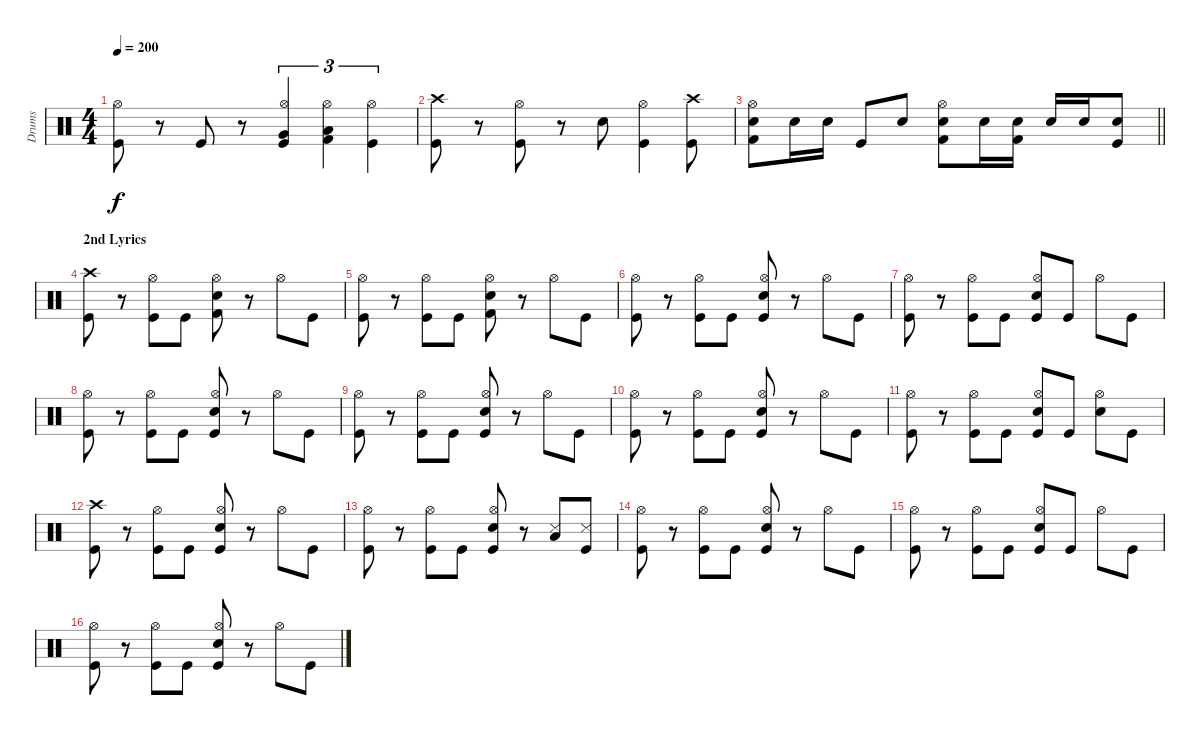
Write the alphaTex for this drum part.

\track ("Drums" "Drums") {instrument percussion}
\staff {score}
\articulation defaults
\ts (4 4)
\tempo 200
\clef neutral
\ks c
("Kick (hit)" "Hi-Hat (open)").8{dy f} r.8 "Kick (hit)".8 r.8 ("Kick (hit)" "Hi-Hat (open)" "Very Low Tom (hit)").4{tu (3 2)} ("Kick (hit) 2" "Hi-Hat (open)" "Low Floor Tom (hit)").4{tu (3 2)} ("Kick (hit)" "Hi-Hat (open)").4{tu (3 2)} |
("Kick (hit)" "Crash high (hit)").8 r.8 ("Kick (hit)" "Hi-Hat (open)").8 r.8 "Electric Snare (hit)".8 ("Kick (hit)" "Hi-Hat (open)").4 ("Kick (hit)" "Crash high (hit)").8 |
\barLineRight lightlight
("Kick (hit) 2" "Electric Snare (hit)" "Hi-Hat (open)").8 "Snare (hit) 2".16 "Electric Snare (hit)".16 "Kick (hit)".8 "Snare (hit) 2".8 ("Kick (hit) 2" "Electric Snare (hit)" "Hi-Hat (open)").8 "Snare (hit) 2".16 ("Kick (hit) 2" "Electric Snare (hit)").16 "Snare (hit) 2".16 "Electric Snare (hit)".16 ("Kick (hit)" "Electric Snare (hit)").8 |
\section ("" "2nd Lyrics")
("Kick (hit)" "Crash high (hit)").8 r.8 ("Kick (hit)" "Hi-Hat (open)").8 "Kick (hit)".8 ("Kick (hit) 2" "Electric Snare (hit)" "Hi-Hat (open)").8 r.8 "Hi-Hat (open)".8 "Kick (hit)".8 |
("Kick (hit)" "Hi-Hat (open)").8 r.8 ("Kick (hit)" "Hi-Hat (open)").8 "Kick (hit)".8 ("Kick (hit) 2" "Electric Snare (hit)" "Hi-Hat (open)").8 r.8 "Hi-Hat (open)".8 "Kick (hit)".8 |
("Kick (hit)" "Hi-Hat (open)").8 r.8 ("Kick (hit)" "Hi-Hat (open)").8 "Kick (hit)".8 ("Kick (hit)" "Electric Snare (hit)" "Hi-Hat (open)").8 r.8 "Hi-Hat (open)".8 "Kick (hit)".8 |
("Kick (hit)" "Hi-Hat (open)").8 r.8 ("Kick (hit)" "Hi-Hat (open)").8 "Kick (hit)".8 ("Kick (hit)" "Electric Snare (hit)" "Hi-Hat (open)").8 "Kick (hit)".8 "Hi-Hat (open)".8 "Kick (hit)".8 |
("Kick (hit)" "Hi-Hat (open)").8 r.8 ("Kick (hit)" "Hi-Hat (open)").8 "Kick (hit)".8 ("Kick (hit)" "Electric Snare (hit)" "Hi-Hat (open)").8 r.8 "Hi-Hat (open)".8 "Kick (hit)".8 |
("Kick (hit)" "Hi-Hat (open)").8 r.8 ("Kick (hit)" "Hi-Hat (open)").8 "Kick (hit)".8 ("Kick (hit)" "Electric Snare (hit)" "Hi-Hat (open)").8 r.8 "Hi-Hat (open)".8 "Kick (hit)".8 |
("Kick (hit)" "Hi-Hat (open)").8 r.8 ("Kick (hit)" "Hi-Hat (open)").8 "Kick (hit)".8 ("Kick (hit)" "Electric Snare (hit)" "Hi-Hat (open)").8 r.8 "Hi-Hat (open)".8 "Kick (hit)".8 |
("Kick (hit)" "Hi-Hat (open)").8 r.8 ("Kick (hit)" "Hi-Hat (open)").8 "Kick (hit)".8 ("Kick (hit)" "Electric Snare (hit)" "Hi-Hat (open)").8 "Kick (hit)".8 ("Electric Snare (hit)" "Hi-Hat (open)").8 "Kick (hit)".8 |
("Kick (hit)" "Crash high (hit)").8 r.8 ("Kick (hit)" "Hi-Hat (open)").8 "Kick (hit)".8 ("Kick (hit)" "Electric Snare (hit)" "Hi-Hat (open)").8 r.8 "Hi-Hat (open)".8 "Kick (hit)".8 |
("Kick (hit)" "Hi-Hat (open)").8 r.8 ("Kick (hit)" "Hi-Hat (open)").8 "Kick (hit)".8 ("Kick (hit)" "Electric Snare (hit)" "Hi-Hat (open)").8 r.8 ("Snare (side stick) 3" "Low Floor Tom (hit)").8 ("Kick (hit)" "Snare (side stick) 3").8 |
("Kick (hit)" "Hi-Hat (open)").8 r.8 ("Kick (hit)" "Hi-Hat (open)").8 "Kick (hit)".8 ("Kick (hit)" "Electric Snare (hit)" "Hi-Hat (open)").8 r.8 "Hi-Hat (open)".8 "Kick (hit)".8 |
("Kick (hit)" "Hi-Hat (open)").8 r.8 ("Kick (hit)" "Hi-Hat (open)").8 "Kick (hit)".8 ("Kick (hit)" "Electric Snare (hit)" "Hi-Hat (open)").8 "Kick (hit)".8 "Hi-Hat (open)".8 "Kick (hit)".8 |
("Kick (hit)" "Hi-Hat (open)").8 r.8 ("Kick (hit)" "Hi-Hat (open)").8 "Kick (hit)".8 ("Kick (hit)" "Electric Snare (hit)" "Hi-Hat (open)").8 r.8 "Hi-Hat (open)".8 "Kick (hit)".8
